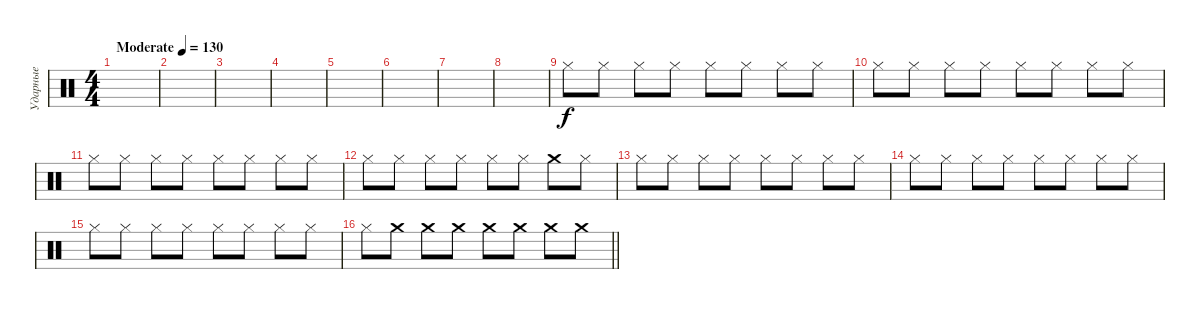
\track ("Ударные" "Ударные") {instrument percussion}
\staff {score}
\articulation defaults
\ts (4 4)
\tempo (130 "Moderate")
\clef neutral
\ks c
|
|
|
|
|
|
|
|
"Hi-Hat (closed)".8 "Hi-Hat (closed)".8 "Hi-Hat (closed)".8 "Hi-Hat (closed)".8 "Hi-Hat (closed)".8 "Hi-Hat (closed)".8 "Hi-Hat (closed)".8 "Hi-Hat (closed)".8 |
"Hi-Hat (closed)".8 "Hi-Hat (closed)".8 "Hi-Hat (closed)".8 "Hi-Hat (closed)".8 "Hi-Hat (closed)".8 "Hi-Hat (closed)".8 "Hi-Hat (closed)".8 "Hi-Hat (closed)".8 |
"Hi-Hat (closed)".8 "Hi-Hat (closed)".8 "Hi-Hat (closed)".8 "Hi-Hat (closed)".8 "Hi-Hat (closed)".8 "Hi-Hat (closed)".8 "Hi-Hat (closed)".8 "Hi-Hat (closed)".8 |
"Hi-Hat (closed)".8 "Hi-Hat (closed)".8 "Hi-Hat (closed)".8 "Hi-Hat (closed)".8 "Hi-Hat (closed)".8 "Hi-Hat (closed)".8 "Crash medium (hit)".8 "Hi-Hat (closed)".8 |
"Hi-Hat (closed)".8 "Hi-Hat (closed)".8 "Hi-Hat (closed)".8 "Hi-Hat (closed)".8 "Hi-Hat (closed)".8 "Hi-Hat (closed)".8 "Hi-Hat (closed)".8 "Hi-Hat (closed)".8 |
"Hi-Hat (closed)".8 "Hi-Hat (closed)".8 "Hi-Hat (closed)".8 "Hi-Hat (closed)".8 "Hi-Hat (closed)".8 "Hi-Hat (closed)".8 "Hi-Hat (closed)".8 "Hi-Hat (closed)".8 |
"Hi-Hat (closed)".8 "Hi-Hat (closed)".8 "Hi-Hat (closed)".8 "Hi-Hat (closed)".8 "Hi-Hat (closed)".8 "Hi-Hat (closed)".8 "Hi-Hat (closed)".8 "Hi-Hat (closed)".8 |
\barLineRight lightlight "Hi-Hat (closed)".8 "Crash medium (hit)".8 "Crash medium (hit)".8 "Crash medium (hit)".8 "Crash medium (hit)".8 "Crash medium (hit)".8 "Crash medium (hit)".8 "Crash medium (hit)".8
